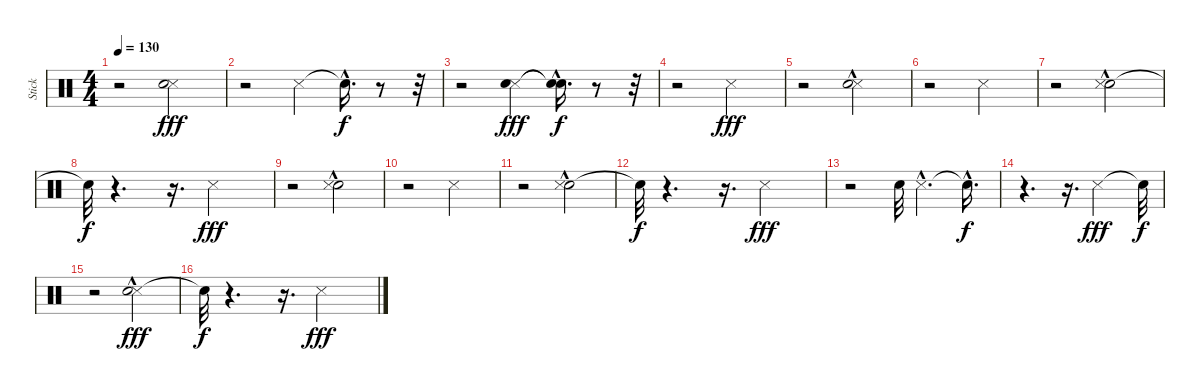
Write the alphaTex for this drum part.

\track ("Stick" "Stick") {instrument percussion}
\staff {score}
\articulation defaults
\ts (4 4)
\tempo 130
\clef neutral
\ks c
r.2{dy f} ("Snare (side stick) 3" "Snare (hit) 2").2{dy fff} |
r.2 "Snare (side stick) 3".4 "Snare (hit)"{hac t}.16{d dy f} r.8 r.32 |
r.2 ("Snare (side stick) 3" "Snare (hit) 2").4{dy fff} ("Snare (hit)"{hac t} "Snare (hit)"{hac t}).16{d dy f} r.8 r.32 |
r.2 "Snare (side stick) 3".2{dy fff} |
r.2 ("Snare (side stick) 3" "Snare (hit) 2"{hac}).2 |
r.2 "Snare (side stick) 3".2 |
r.2 ("Snare (hit) 2"{hac} "Snare (side stick) 3").2 |
"Snare (hit)"{t}.32{dy f} r.4{d} r.16{d} "Snare (side stick) 3".2{dy fff} |
r.2 ("Snare (hit) 2"{hac} "Snare (side stick) 3").2 |
r.2 "Snare (side stick) 3".2 |
r.2 ("Snare (hit) 2"{hac} "Snare (side stick) 3").2 |
"Snare (hit)"{t}.32{dy f} r.4{d} r.16{d} "Snare (side stick) 3".2{dy fff} |
r.2 "Snare (hit) 2".32 "Snare (side stick) 3"{hac}.4{d} "Snare (hit)"{hac t}.16{d dy f} |
r.4{d} r.16{d} "Snare (side stick) 3".2{dy fff} "Snare (hit)"{t}.32{dy f} |
r.2 ("Snare (side stick) 3" "Snare (hit) 2"{hac}).2{dy fff} |
"Snare (hit)"{t}.32{dy f} r.4{d} r.16{d} "Snare (side stick) 3".2{dy fff}
